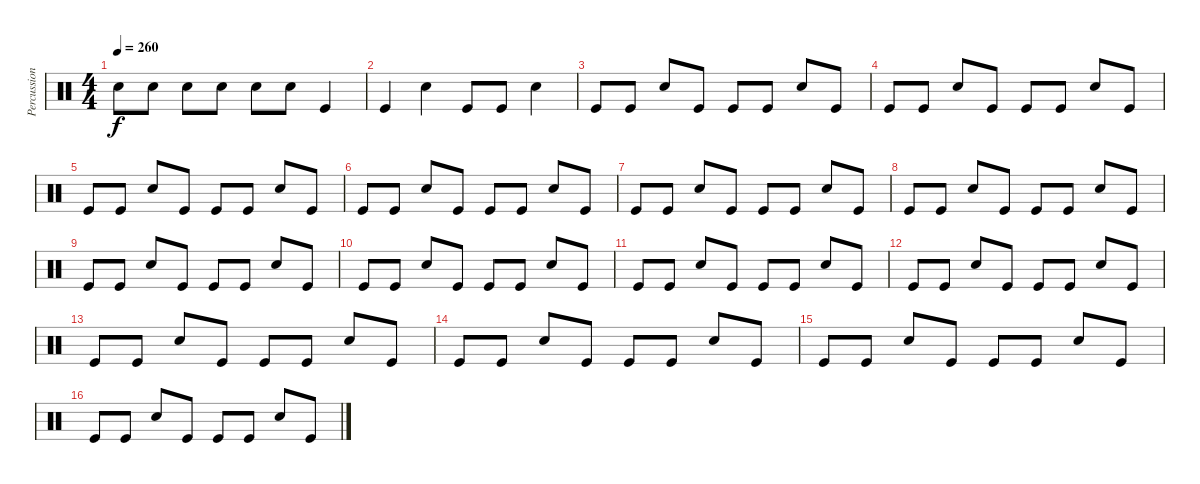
\track ("Percussion" "Percussion") {instrument percussion}
\staff {score}
\articulation defaults
\ts (4 4)
\tempo 260
\clef neutral
\ks c "Snare (hit) 2".8{dy f} "Snare (hit) 2".8 "Snare (hit) 2".8 "Snare (hit) 2".8 "Snare (hit) 2".8 "Snare (hit) 2".8 "Kick (hit)".4
|
"Kick (hit)".4 "Snare (hit) 2".4 "Kick (hit)".8 "Kick (hit)".8 "Snare (hit) 2".4 |
"Kick (hit)".8 "Kick (hit)".8 "Snare (hit) 2".8 "Kick (hit)".8 "Kick (hit)".8 "Kick (hit)".8 "Snare (hit) 2".8 "Kick (hit)".8 |
"Kick (hit)".8 "Kick (hit)".8 "Snare (hit) 2".8 "Kick (hit)".8 "Kick (hit)".8 "Kick (hit)".8 "Snare (hit) 2".8 "Kick (hit)".8 |
"Kick (hit)".8 "Kick (hit)".8 "Snare (hit) 2".8 "Kick (hit)".8 "Kick (hit)".8 "Kick (hit)".8 "Snare (hit) 2".8 "Kick (hit)".8 |
"Kick (hit)".8 "Kick (hit)".8 "Snare (hit) 2".8 "Kick (hit)".8 "Kick (hit)".8 "Kick (hit)".8 "Snare (hit) 2".8 "Kick (hit)".8 |
"Kick (hit)".8 "Kick (hit)".8 "Snare (hit) 2".8 "Kick (hit)".8 "Kick (hit)".8 "Kick (hit)".8 "Snare (hit) 2".8 "Kick (hit)".8 |
"Kick (hit)".8 "Kick (hit)".8 "Snare (hit) 2".8 "Kick (hit)".8 "Kick (hit)".8 "Kick (hit)".8 "Snare (hit) 2".8 "Kick (hit)".8 |
"Kick (hit)".8 "Kick (hit)".8 "Snare (hit) 2".8 "Kick (hit)".8 "Kick (hit)".8 "Kick (hit)".8 "Snare (hit) 2".8 "Kick (hit)".8 |
"Kick (hit)".8 "Kick (hit)".8 "Snare (hit) 2".8 "Kick (hit)".8 "Kick (hit)".8 "Kick (hit)".8 "Snare (hit) 2".8 "Kick (hit)".8 |
"Kick (hit)".8 "Kick (hit)".8 "Snare (hit) 2".8 "Kick (hit)".8 "Kick (hit)".8 "Kick (hit)".8 "Snare (hit) 2".8 "Kick (hit)".8 |
"Kick (hit)".8 "Kick (hit)".8 "Snare (hit) 2".8 "Kick (hit)".8 "Kick (hit)".8 "Kick (hit)".8 "Snare (hit) 2".8 "Kick (hit)".8 |
"Kick (hit)".8 "Kick (hit)".8 "Snare (hit) 2".8 "Kick (hit)".8 "Kick (hit)".8 "Kick (hit)".8 "Snare (hit) 2".8 "Kick (hit)".8 |
"Kick (hit)".8 "Kick (hit)".8 "Snare (hit) 2".8 "Kick (hit)".8 "Kick (hit)".8 "Kick (hit)".8 "Snare (hit) 2".8 "Kick (hit)".8 |
"Kick (hit)".8 "Kick (hit)".8 "Snare (hit) 2".8 "Kick (hit)".8 "Kick (hit)".8 "Kick (hit)".8 "Snare (hit) 2".8 "Kick (hit)".8 |
"Kick (hit)".8 "Kick (hit)".8 "Snare (hit) 2".8 "Kick (hit)".8 "Kick (hit)".8 "Kick (hit)".8 "Snare (hit) 2".8 "Kick (hit)".8
